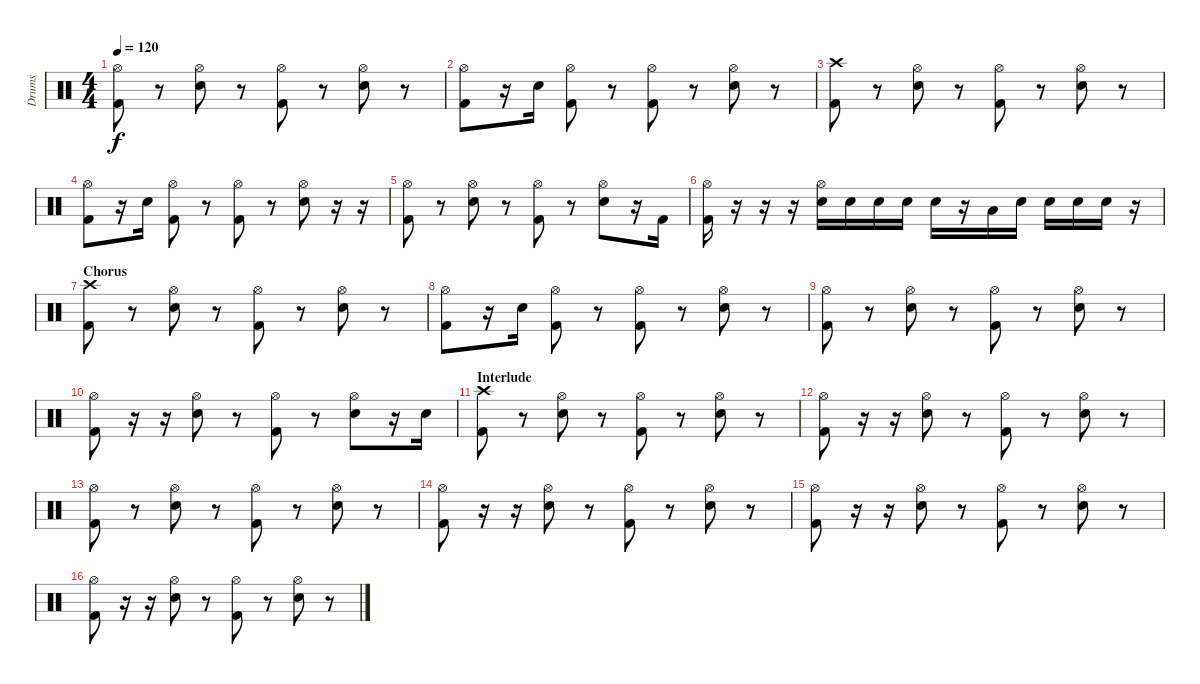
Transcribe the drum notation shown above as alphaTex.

\track ("Drums" "Drums") {instrument percussion}
\staff {score}
\articulation defaults
\ts (4 4)
\tempo 120
\clef neutral
\ks c
("Hi-Hat (open)" "Kick (hit) 2").8{dy f} r.8 ("Hi-Hat (open)" "Electric Snare (hit)").8 r.8 ("Hi-Hat (open)" "Kick (hit) 2").8 r.8 ("Hi-Hat (open)" "Electric Snare (hit)").8 r.8 |
("Hi-Hat (open)" "Kick (hit) 2").8 r.16 "Electric Snare (hit)".16 ("Hi-Hat (open)" "Kick (hit) 2").8 r.8 ("Hi-Hat (open)" "Kick (hit) 2").8 r.8 ("Hi-Hat (open)" "Electric Snare (hit)").8 r.8 |
("Crash high (hit)" "Kick (hit) 2").8 r.8 ("Hi-Hat (open)" "Electric Snare (hit)").8 r.8 ("Hi-Hat (open)" "Kick (hit) 2").8 r.8 ("Hi-Hat (open)" "Electric Snare (hit)").8 r.8 |
("Hi-Hat (open)" "Kick (hit) 2").8 r.16 "Electric Snare (hit)".16 ("Hi-Hat (open)" "Kick (hit) 2").8 r.8 ("Hi-Hat (open)" "Kick (hit) 2").8 r.8 ("Hi-Hat (open)" "Electric Snare (hit)").8 r.16 r.16 |
("Hi-Hat (open)" "Kick (hit) 2").8 r.8 ("Hi-Hat (open)" "Electric Snare (hit)").8 r.8 ("Hi-Hat (open)" "Kick (hit) 2").8 r.8 ("Hi-Hat (open)" "Electric Snare (hit)").8 r.16 "Kick (hit) 2".16 |
("Hi-Hat (open)" "Kick (hit) 2").16 r.16 r.16 r.16 ("Hi-Hat (open)" "Electric Snare (hit)").16 "Electric Snare (hit)".16 "Electric Snare (hit)".16 "Electric Snare (hit)".16 "Electric Snare (hit)".16 r.16 "Low Tom (hit)".16 "Electric Snare (hit)".16 "Electric Snare (hit)".16 "Electric Snare (hit)".16 "Electric Snare (hit)".16 r.16 |
\section ("" "Chorus")
("Crash high (hit)" "Kick (hit) 2").8 r.8 ("Hi-Hat (open)" "Electric Snare (hit)").8 r.8 ("Hi-Hat (open)" "Kick (hit) 2").8 r.8 ("Hi-Hat (open)" "Electric Snare (hit)").8 r.8 |
("Hi-Hat (open)" "Kick (hit) 2").8 r.16 "Electric Snare (hit)".16 ("Hi-Hat (open)" "Kick (hit) 2").8 r.8 ("Hi-Hat (open)" "Kick (hit) 2").8 r.8 ("Hi-Hat (open)" "Electric Snare (hit)").8 r.8 |
("Hi-Hat (open)" "Kick (hit) 2").8 r.8 ("Hi-Hat (open)" "Electric Snare (hit)").8 r.8 ("Hi-Hat (open)" "Kick (hit) 2").8 r.8 ("Hi-Hat (open)" "Electric Snare (hit)").8 r.8 |
("Hi-Hat (open)" "Kick (hit) 2").8 r.16 r.16 ("Hi-Hat (open)" "Electric Snare (hit)").8 r.8 ("Hi-Hat (open)" "Kick (hit) 2").8 r.8 ("Hi-Hat (open)" "Electric Snare (hit)").8 r.16 "Electric Snare (hit)".16 |
\section ("" "Interlude")
("Crash high (hit)" "Kick (hit) 2").8 r.8 ("Hi-Hat (open)" "Electric Snare (hit)").8 r.8 ("Hi-Hat (open)" "Kick (hit) 2").8 r.8 ("Hi-Hat (open)" "Electric Snare (hit)").8 r.8 |
("Hi-Hat (open)" "Kick (hit) 2").8 r.16 r.16 ("Hi-Hat (open)" "Electric Snare (hit)").8 r.8 ("Hi-Hat (open)" "Kick (hit) 2").8 r.8 ("Hi-Hat (open)" "Electric Snare (hit)").8 r.8 |
("Hi-Hat (open)" "Kick (hit) 2").8 r.8 ("Hi-Hat (open)" "Electric Snare (hit)").8 r.8 ("Hi-Hat (open)" "Kick (hit) 2").8 r.8 ("Hi-Hat (open)" "Electric Snare (hit)").8 r.8 |
("Hi-Hat (open)" "Kick (hit) 2").8 r.16 r.16 ("Hi-Hat (open)" "Electric Snare (hit)").8 r.8 ("Hi-Hat (open)" "Kick (hit) 2").8 r.8 ("Hi-Hat (open)" "Electric Snare (hit)").8 r.8 |
("Hi-Hat (open)" "Kick (hit) 2").8 r.16 r.16 ("Hi-Hat (open)" "Electric Snare (hit)").8 r.8 ("Hi-Hat (open)" "Kick (hit) 2").8 r.8 ("Hi-Hat (open)" "Electric Snare (hit)").8 r.8 |
("Hi-Hat (open)" "Kick (hit) 2").8 r.16 r.16 ("Hi-Hat (open)" "Electric Snare (hit)").8 r.8 ("Hi-Hat (open)" "Kick (hit) 2").8 r.8 ("Hi-Hat (open)" "Electric Snare (hit)").8 r.8
